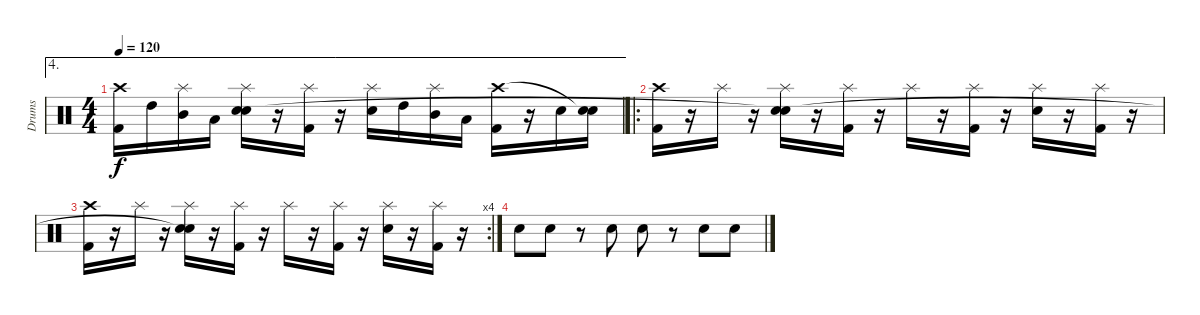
\track ("Drums" "Drums") {instrument percussion}
\staff {score}
\articulation defaults
\ae 4
\ts (4 4)
\tempo 120
\clef neutral
\ks c
("Kick (hit) 2" "Crash high (hit)").16{dy f} "High Tom (hit)".16 ("Mid Tom (hit)" "Splash (hit)").16 "Low Tom (hit)".16 ("Snare (hit) 2" "Splash (hit)" "Snare (hit)"{t}).16 r.16 ("Kick (hit) 2" "Splash (hit)").16 r.16 ("Snare (hit) 2" "Splash (hit)").16 "High Tom (hit)".16 ("Mid Tom (hit)" "Splash (hit)").16 "Low Tom (hit)".16 ("Kick (hit) 2" "Crash high (hit)").16 r.16 "Snare (hit) 2".16 ("Snare (hit) 2" "Snare (hit)"{t}).16 |
\ro
("Kick (hit) 2" "Crash high (hit)").16 r.16 "Splash (hit)".16 r.16 ("Snare (hit) 2" "Splash (hit)" "Snare (hit)"{t}).16 r.16 ("Kick (hit) 2" "Splash (hit)").16 r.16 "Splash (hit)".16 r.16 ("Kick (hit) 2" "Splash (hit)").16 r.16 ("Snare (hit) 2" "Splash (hit)").16 r.16 ("Kick (hit) 2" "Splash (hit)").16 r.16 |
\rc 4
("Kick (hit) 2" "Crash high (hit)").16 r.16 "Splash (hit)".16 r.16 ("Snare (hit) 2" "Splash (hit)" "Snare (hit)"{t}).16 r.16 ("Kick (hit) 2" "Splash (hit)").16 r.16 "Splash (hit)".16 r.16 ("Kick (hit) 2" "Splash (hit)").16 r.16 ("Snare (hit) 2" "Splash (hit)").16 r.16 ("Kick (hit) 2" "Splash (hit)").16 r.16 |
"Snare (hit) 2".8 "Snare (hit) 2".8 r.8 "Snare (hit) 2".8 "Snare (hit) 2".8 r.8 "Snare (hit) 2".8 "Snare (hit) 2".8
